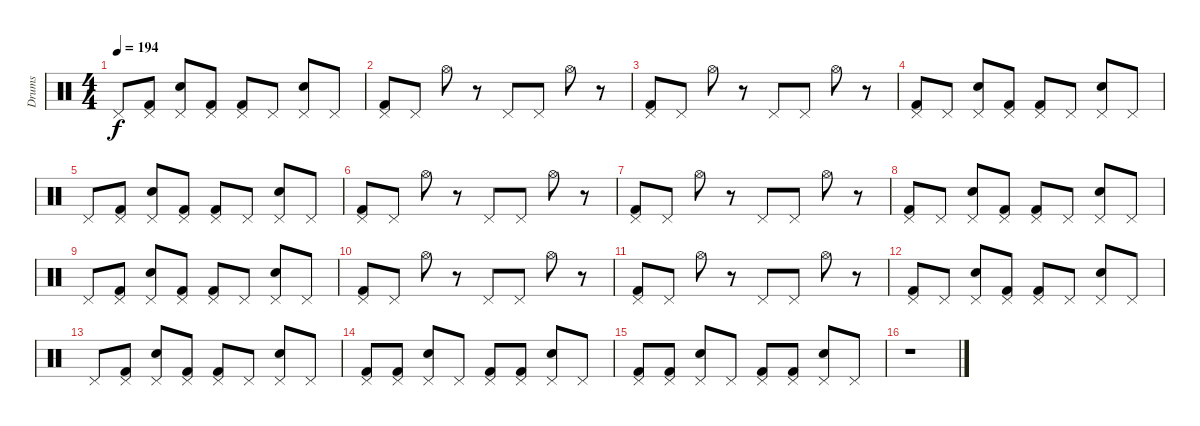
\track ("Drums" "Drums") {instrument percussion}
\staff {score}
\articulation defaults
\ts (4 4)
\tempo 194
\clef neutral
\ks c "Pedal Hi-Hat (hit)".8{dy f}
("Pedal Hi-Hat (hit)" "Kick (hit) 2").8 ("Pedal Hi-Hat (hit)" "Electric Snare (hit)").8 ("Pedal Hi-Hat (hit)" "Kick (hit) 2").8 ("Kick (hit) 2" "Pedal Hi-Hat (hit)").8 "Pedal Hi-Hat (hit)".8 ("Electric Snare (hit)" "Pedal Hi-Hat (hit)").8 "Pedal Hi-Hat (hit)".8 |
("Kick (hit) 2" "Pedal Hi-Hat (hit)").8 "Pedal Hi-Hat (hit)".8 "Hi-Hat (open)".8 r.8 "Pedal Hi-Hat (hit)".8 "Pedal Hi-Hat (hit)".8 "Hi-Hat (open)".8 r.8 |
("Kick (hit) 2" "Pedal Hi-Hat (hit)").8 "Pedal Hi-Hat (hit)".8 "Hi-Hat (open)".8 r.8 "Pedal Hi-Hat (hit)".8 "Pedal Hi-Hat (hit)".8 "Hi-Hat (open)".8 r.8 |
("Kick (hit) 2" "Pedal Hi-Hat (hit)").8 "Pedal Hi-Hat (hit)".8 ("Pedal Hi-Hat (hit)" "Electric Snare (hit)").8 ("Kick (hit) 2" "Pedal Hi-Hat (hit)").8 ("Pedal Hi-Hat (hit)" "Kick (hit) 2").8 "Pedal Hi-Hat (hit)".8 ("Electric Snare (hit)" "Pedal Hi-Hat (hit)").8 "Pedal Hi-Hat (hit)".8 |
"Pedal Hi-Hat (hit)".8 ("Kick (hit) 2" "Pedal Hi-Hat (hit)").8 ("Pedal Hi-Hat (hit)" "Electric Snare (hit)").8 ("Kick (hit) 2" "Pedal Hi-Hat (hit)").8 ("Kick (hit) 2" "Pedal Hi-Hat (hit)").8 "Pedal Hi-Hat (hit)".8 ("Pedal Hi-Hat (hit)" "Electric Snare (hit)").8 "Pedal Hi-Hat (hit)".8 |
("Kick (hit) 2" "Pedal Hi-Hat (hit)").8 "Pedal Hi-Hat (hit)".8 "Hi-Hat (open)".8 r.8 "Pedal Hi-Hat (hit)".8 "Pedal Hi-Hat (hit)".8 "Hi-Hat (open)".8 r.8 |
("Pedal Hi-Hat (hit)" "Kick (hit) 2").8 "Pedal Hi-Hat (hit)".8 "Hi-Hat (open)".8 r.8 "Pedal Hi-Hat (hit)".8 "Pedal Hi-Hat (hit)".8 "Hi-Hat (open)".8 r.8 |
("Pedal Hi-Hat (hit)" "Kick (hit) 2").8 "Pedal Hi-Hat (hit)".8 ("Pedal Hi-Hat (hit)" "Electric Snare (hit)").8 ("Kick (hit) 2" "Pedal Hi-Hat (hit)").8 ("Pedal Hi-Hat (hit)" "Kick (hit) 2").8 "Pedal Hi-Hat (hit)".8 ("Pedal Hi-Hat (hit)" "Electric Snare (hit)").8 "Pedal Hi-Hat (hit)".8 |
"Pedal Hi-Hat (hit)".8 ("Kick (hit) 2" "Pedal Hi-Hat (hit)").8 ("Electric Snare (hit)" "Pedal Hi-Hat (hit)").8 ("Kick (hit) 2" "Pedal Hi-Hat (hit)").8 ("Pedal Hi-Hat (hit)" "Kick (hit) 2").8 "Pedal Hi-Hat (hit)".8 ("Electric Snare (hit)" "Pedal Hi-Hat (hit)").8 "Pedal Hi-Hat (hit)".8 |
("Kick (hit) 2" "Pedal Hi-Hat (hit)").8 "Pedal Hi-Hat (hit)".8 "Hi-Hat (open)".8 r.8 "Pedal Hi-Hat (hit)".8 "Pedal Hi-Hat (hit)".8 "Hi-Hat (open)".8 r.8 |
("Pedal Hi-Hat (hit)" "Kick (hit) 2").8 "Pedal Hi-Hat (hit)".8 "Hi-Hat (open)".8 r.8 "Pedal Hi-Hat (hit)".8 "Pedal Hi-Hat (hit)".8 "Hi-Hat (open)".8 r.8 |
("Pedal Hi-Hat (hit)" "Kick (hit) 2").8 "Pedal Hi-Hat (hit)".8 ("Pedal Hi-Hat (hit)" "Electric Snare (hit)").8 ("Kick (hit) 2" "Pedal Hi-Hat (hit)").8 ("Pedal Hi-Hat (hit)" "Kick (hit) 2").8 "Pedal Hi-Hat (hit)".8 ("Electric Snare (hit)" "Pedal Hi-Hat (hit)").8 "Pedal Hi-Hat (hit)".8 |
"Pedal Hi-Hat (hit)".8 ("Pedal Hi-Hat (hit)" "Kick (hit) 2").8 ("Pedal Hi-Hat (hit)" "Electric Snare (hit)").8 ("Kick (hit) 2" "Pedal Hi-Hat (hit)").8 ("Kick (hit) 2" "Pedal Hi-Hat (hit)").8 "Pedal Hi-Hat (hit)".8 ("Pedal Hi-Hat (hit)" "Electric Snare (hit)").8 "Pedal Hi-Hat (hit)".8 |
("Kick (hit) 2" "Pedal Hi-Hat (hit)").8 ("Kick (hit) 2" "Pedal Hi-Hat (hit)").8 ("Electric Snare (hit)" "Pedal Hi-Hat (hit)").8 "Pedal Hi-Hat (hit)".8 ("Kick (hit) 2" "Pedal Hi-Hat (hit)").8 ("Kick (hit) 2" "Pedal Hi-Hat (hit)").8 ("Pedal Hi-Hat (hit)" "Electric Snare (hit)").8 "Pedal Hi-Hat (hit)".8 |
("Pedal Hi-Hat (hit)" "Kick (hit) 2").8 ("Pedal Hi-Hat (hit)" "Kick (hit) 2").8 ("Electric Snare (hit)" "Pedal Hi-Hat (hit)").8 "Pedal Hi-Hat (hit)".8 ("Pedal Hi-Hat (hit)" "Kick (hit) 2").8 ("Pedal Hi-Hat (hit)" "Kick (hit) 2").8 ("Pedal Hi-Hat (hit)" "Electric Snare (hit)").8 "Pedal Hi-Hat (hit)".8 |
r.1
